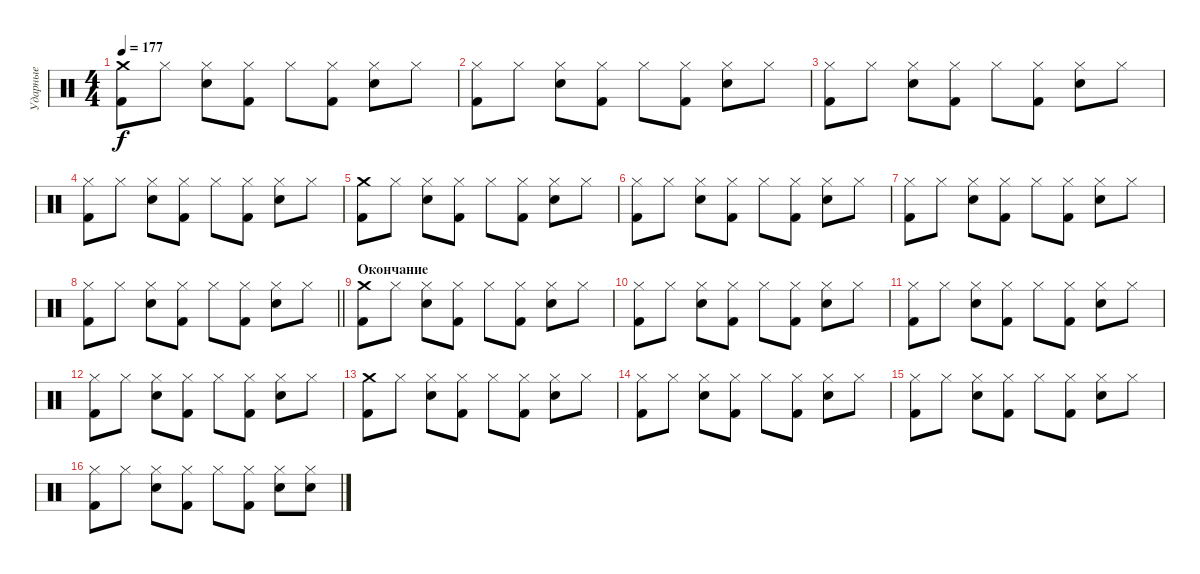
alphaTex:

\track ("Ударные" "Ударные") {instrument percussion}
\staff {score}
\articulation defaults
\ts (4 4)
\tempo 177
\clef neutral
\ks c
("Crash medium (hit)" "Kick (hit) 2").8{dy f} "Hi-Hat (closed)".8 ("Hi-Hat (closed)" "Snare (hit) 2").8 ("Hi-Hat (closed)" "Kick (hit) 2").8 "Hi-Hat (closed)".8 ("Hi-Hat (closed)" "Kick (hit) 2").8 ("Hi-Hat (closed)" "Snare (hit) 2").8 "Hi-Hat (closed)".8 |
("Hi-Hat (closed)" "Kick (hit) 2").8 "Hi-Hat (closed)".8 ("Hi-Hat (closed)" "Snare (hit) 2").8 ("Hi-Hat (closed)" "Kick (hit) 2").8 "Hi-Hat (closed)".8 ("Hi-Hat (closed)" "Kick (hit) 2").8 ("Hi-Hat (closed)" "Snare (hit) 2").8 "Hi-Hat (closed)".8 |
("Hi-Hat (closed)" "Kick (hit) 2").8 "Hi-Hat (closed)".8 ("Hi-Hat (closed)" "Snare (hit) 2").8 ("Hi-Hat (closed)" "Kick (hit) 2").8 "Hi-Hat (closed)".8 ("Hi-Hat (closed)" "Kick (hit) 2").8 ("Hi-Hat (closed)" "Snare (hit) 2").8 "Hi-Hat (closed)".8 |
("Hi-Hat (closed)" "Kick (hit) 2").8 "Hi-Hat (closed)".8 ("Hi-Hat (closed)" "Snare (hit) 2").8 ("Hi-Hat (closed)" "Kick (hit) 2").8 "Hi-Hat (closed)".8 ("Hi-Hat (closed)" "Kick (hit) 2").8 ("Hi-Hat (closed)" "Snare (hit) 2").8 "Hi-Hat (closed)".8 |
("Crash medium (hit)" "Kick (hit) 2").8 "Hi-Hat (closed)".8 ("Hi-Hat (closed)" "Snare (hit) 2").8 ("Hi-Hat (closed)" "Kick (hit) 2").8 "Hi-Hat (closed)".8 ("Hi-Hat (closed)" "Kick (hit) 2").8 ("Hi-Hat (closed)" "Snare (hit) 2").8 "Hi-Hat (closed)".8 |
("Hi-Hat (closed)" "Kick (hit) 2").8 "Hi-Hat (closed)".8 ("Hi-Hat (closed)" "Snare (hit) 2").8 ("Hi-Hat (closed)" "Kick (hit) 2").8 "Hi-Hat (closed)".8 ("Hi-Hat (closed)" "Kick (hit) 2").8 ("Hi-Hat (closed)" "Snare (hit) 2").8 "Hi-Hat (closed)".8 |
("Hi-Hat (closed)" "Kick (hit) 2").8 "Hi-Hat (closed)".8 ("Hi-Hat (closed)" "Snare (hit) 2").8 ("Hi-Hat (closed)" "Kick (hit) 2").8 "Hi-Hat (closed)".8 ("Hi-Hat (closed)" "Kick (hit) 2").8 ("Hi-Hat (closed)" "Snare (hit) 2").8 "Hi-Hat (closed)".8 |
\barLineRight lightlight
("Hi-Hat (closed)" "Kick (hit) 2").8 "Hi-Hat (closed)".8 ("Hi-Hat (closed)" "Snare (hit) 2").8 ("Hi-Hat (closed)" "Kick (hit) 2").8 "Hi-Hat (closed)".8 ("Hi-Hat (closed)" "Kick (hit) 2").8 ("Hi-Hat (closed)" "Snare (hit) 2").8 "Hi-Hat (closed)".8 |
\section ("" "Окончание")
("Crash medium (hit)" "Kick (hit) 2").8 "Hi-Hat (closed)".8 ("Hi-Hat (closed)" "Snare (hit) 2").8 ("Hi-Hat (closed)" "Kick (hit) 2").8 "Hi-Hat (closed)".8 ("Hi-Hat (closed)" "Kick (hit) 2").8 ("Hi-Hat (closed)" "Snare (hit) 2").8 "Hi-Hat (closed)".8 |
("Hi-Hat (closed)" "Kick (hit) 2").8 "Hi-Hat (closed)".8 ("Hi-Hat (closed)" "Snare (hit) 2").8 ("Hi-Hat (closed)" "Kick (hit) 2").8 "Hi-Hat (closed)".8 ("Hi-Hat (closed)" "Kick (hit) 2").8 ("Hi-Hat (closed)" "Snare (hit) 2").8 "Hi-Hat (closed)".8 |
("Hi-Hat (closed)" "Kick (hit) 2").8 "Hi-Hat (closed)".8 ("Hi-Hat (closed)" "Snare (hit) 2").8 ("Hi-Hat (closed)" "Kick (hit) 2").8 "Hi-Hat (closed)".8 ("Hi-Hat (closed)" "Kick (hit) 2").8 ("Hi-Hat (closed)" "Snare (hit) 2").8 "Hi-Hat (closed)".8 |
("Hi-Hat (closed)" "Kick (hit) 2").8 "Hi-Hat (closed)".8 ("Hi-Hat (closed)" "Snare (hit) 2").8 ("Hi-Hat (closed)" "Kick (hit) 2").8 "Hi-Hat (closed)".8 ("Hi-Hat (closed)" "Kick (hit) 2").8 ("Hi-Hat (closed)" "Snare (hit) 2").8 "Hi-Hat (closed)".8 |
("Crash medium (hit)" "Kick (hit) 2").8 "Hi-Hat (closed)".8 ("Hi-Hat (closed)" "Snare (hit) 2").8 ("Hi-Hat (closed)" "Kick (hit) 2").8 "Hi-Hat (closed)".8 ("Hi-Hat (closed)" "Kick (hit) 2").8 ("Hi-Hat (closed)" "Snare (hit) 2").8 "Hi-Hat (closed)".8 |
("Hi-Hat (closed)" "Kick (hit) 2").8 "Hi-Hat (closed)".8 ("Hi-Hat (closed)" "Snare (hit) 2").8 ("Hi-Hat (closed)" "Kick (hit) 2").8 "Hi-Hat (closed)".8 ("Hi-Hat (closed)" "Kick (hit) 2").8 ("Hi-Hat (closed)" "Snare (hit) 2").8 "Hi-Hat (closed)".8 |
("Hi-Hat (closed)" "Kick (hit) 2").8 "Hi-Hat (closed)".8 ("Hi-Hat (closed)" "Snare (hit) 2").8 ("Hi-Hat (closed)" "Kick (hit) 2").8 "Hi-Hat (closed)".8 ("Hi-Hat (closed)" "Kick (hit) 2").8 ("Hi-Hat (closed)" "Snare (hit) 2").8 "Hi-Hat (closed)".8 |
("Hi-Hat (closed)" "Kick (hit) 2").8 "Hi-Hat (closed)".8 ("Hi-Hat (closed)" "Snare (hit) 2").8 ("Hi-Hat (closed)" "Kick (hit) 2").8 "Hi-Hat (closed)".8 ("Hi-Hat (closed)" "Kick (hit) 2").8 ("Hi-Hat (closed)" "Snare (hit) 2").8 ("Hi-Hat (closed)" "Snare (hit) 2").8
